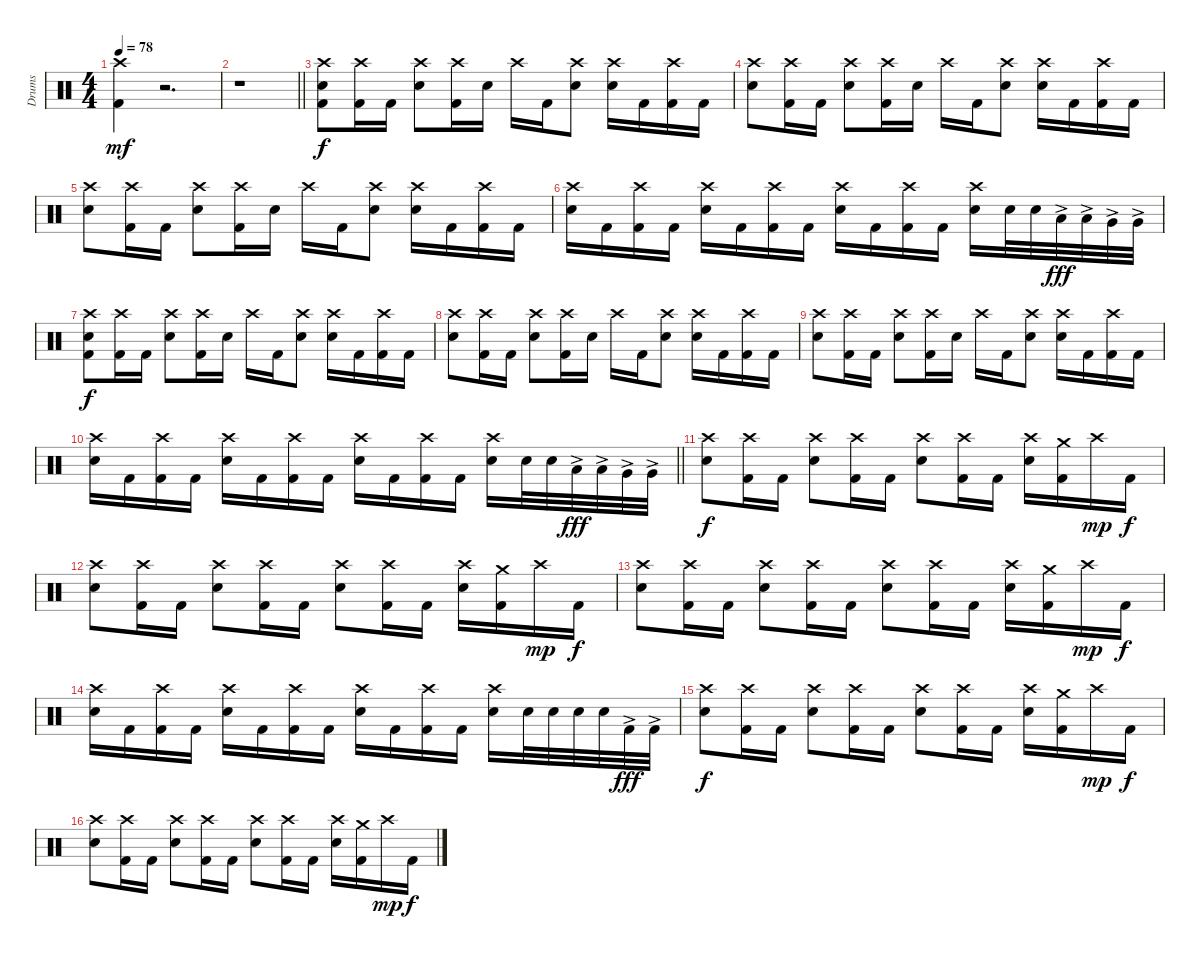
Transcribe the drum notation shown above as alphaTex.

\track ("Drums" "Drums") {instrument percussion}
\staff {score}
\articulation defaults
\ts (4 4)
\tempo 78
\clef neutral
\ks c
("Crash high (hit)" "Kick (hit) 2").4{dy mf} r.2{d} |
\barLineRight lightlight
r.1 |
("Crash high (hit)" "Snare (hit) 2" "Kick (hit) 2").8{dy f volume 16} ("Crash high (hit)" "Kick (hit) 2").16 "Kick (hit) 2".16 ("Crash high (hit)" "Snare (hit) 2").8 ("Crash high (hit)" "Kick (hit) 2").16 "Snare (hit) 2".16 "Crash high (hit)".16 "Kick (hit) 2".16 ("Crash high (hit)" "Snare (hit) 2").8 ("Crash high (hit)" "Snare (hit) 2").16 "Kick (hit) 2".16 ("Crash high (hit)" "Kick (hit) 2").16 "Kick (hit) 2".16 |
("Crash high (hit)" "Snare (hit) 2").8 ("Crash high (hit)" "Kick (hit) 2").16 "Kick (hit) 2".16 ("Crash high (hit)" "Snare (hit) 2").8 ("Crash high (hit)" "Kick (hit) 2").16 "Snare (hit) 2".16 "Crash high (hit)".16 "Kick (hit) 2".16 ("Crash high (hit)" "Snare (hit) 2").8 ("Crash high (hit)" "Snare (hit) 2").16 "Kick (hit) 2".16 ("Crash high (hit)" "Kick (hit) 2").16 "Kick (hit) 2".16 |
("Crash high (hit)" "Snare (hit) 2").8 ("Crash high (hit)" "Kick (hit) 2").16 "Kick (hit) 2".16 ("Crash high (hit)" "Snare (hit) 2").8 ("Crash high (hit)" "Kick (hit) 2").16 "Snare (hit) 2".16 "Crash high (hit)".16 "Kick (hit) 2".16 ("Crash high (hit)" "Snare (hit) 2").8 ("Crash high (hit)" "Snare (hit) 2").16 "Kick (hit) 2".16 ("Crash high (hit)" "Kick (hit) 2").16 "Kick (hit) 2".16 |
("Crash high (hit)" "Snare (hit) 2").16 "Kick (hit) 2".16 ("Crash high (hit)" "Kick (hit) 2").16 "Kick (hit) 2".16 ("Crash high (hit)" "Snare (hit) 2").16 "Kick (hit) 2".16 ("Crash high (hit)" "Kick (hit) 2").16 "Kick (hit) 2".16 ("Crash high (hit)" "Snare (hit) 2").16 "Kick (hit) 2".16 ("Crash high (hit)" "Kick (hit) 2").16 "Kick (hit) 2".16 ("Crash high (hit)" "Snare (hit) 2").16 "Snare (hit) 2".32 "Snare (hit) 2".32 "Low Tom (hit)"{ac}.32{dy fff} "Low Tom (hit)"{ac}.32 "Very Low Tom (hit)"{ac}.32 "Very Low Tom (hit)"{ac}.32 |
("Crash high (hit)" "Snare (hit) 2" "Kick (hit) 2").8{dy f} ("Crash high (hit)" "Kick (hit) 2").16 "Kick (hit) 2".16 ("Crash high (hit)" "Snare (hit) 2").8 ("Crash high (hit)" "Kick (hit) 2").16 "Snare (hit) 2".16 "Crash high (hit)".16 "Kick (hit) 2".16 ("Crash high (hit)" "Snare (hit) 2").8 ("Crash high (hit)" "Snare (hit) 2").16 "Kick (hit) 2".16 ("Crash high (hit)" "Kick (hit) 2").16 "Kick (hit) 2".16 |
("Crash high (hit)" "Snare (hit) 2").8 ("Crash high (hit)" "Kick (hit) 2").16 "Kick (hit) 2".16 ("Crash high (hit)" "Snare (hit) 2").8 ("Crash high (hit)" "Kick (hit) 2").16 "Snare (hit) 2".16 "Crash high (hit)".16 "Kick (hit) 2".16 ("Crash high (hit)" "Snare (hit) 2").8 ("Crash high (hit)" "Snare (hit) 2").16 "Kick (hit) 2".16 ("Crash high (hit)" "Kick (hit) 2").16 "Kick (hit) 2".16 |
("Crash high (hit)" "Snare (hit) 2").8 ("Crash high (hit)" "Kick (hit) 2").16 "Kick (hit) 2".16 ("Crash high (hit)" "Snare (hit) 2").8 ("Crash high (hit)" "Kick (hit) 2").16 "Snare (hit) 2".16 "Crash high (hit)".16 "Kick (hit) 2".16 ("Crash high (hit)" "Snare (hit) 2").8 ("Crash high (hit)" "Snare (hit) 2").16 "Kick (hit) 2".16 ("Crash high (hit)" "Kick (hit) 2").16 "Kick (hit) 2".16 |
\barLineRight lightlight
("Crash high (hit)" "Snare (hit) 2").16 "Kick (hit) 2".16 ("Crash high (hit)" "Kick (hit) 2").16 "Kick (hit) 2".16 ("Crash high (hit)" "Snare (hit) 2").16 "Kick (hit) 2".16 ("Crash high (hit)" "Kick (hit) 2").16 "Kick (hit) 2".16 ("Crash high (hit)" "Snare (hit) 2").16 "Kick (hit) 2".16 ("Crash high (hit)" "Kick (hit) 2").16 "Kick (hit) 2".16 ("Crash high (hit)" "Snare (hit) 2").16 "Snare (hit) 2".32 "Snare (hit) 2".32 "Low Tom (hit)"{ac}.32{dy fff} "Low Tom (hit)"{ac}.32 "Very Low Tom (hit)"{ac}.32 "Very Low Tom (hit)"{ac}.32 |
("Crash high (hit)" "Snare (hit) 2").8{dy f} ("Crash high (hit)" "Kick (hit) 2").16 "Kick (hit) 2".16 ("Crash high (hit)" "Snare (hit) 2").8 ("Crash high (hit)" "Kick (hit) 2").16 "Kick (hit) 2".16 ("Crash high (hit)" "Snare (hit) 2").8 ("Crash high (hit)" "Kick (hit) 2").16 "Kick (hit) 2".16 ("Crash high (hit)" "Snare (hit) 2").16 ("Crash medium (hit)" "Kick (hit) 2").16 "Crash high (hit)".16{dy mp} "Kick (hit) 2".16{dy f} |
("Crash high (hit)" "Snare (hit) 2").8 ("Crash high (hit)" "Kick (hit) 2").16 "Kick (hit) 2".16 ("Crash high (hit)" "Snare (hit) 2").8 ("Crash high (hit)" "Kick (hit) 2").16 "Kick (hit) 2".16 ("Crash high (hit)" "Snare (hit) 2").8 ("Crash high (hit)" "Kick (hit) 2").16 "Kick (hit) 2".16 ("Crash high (hit)" "Snare (hit) 2").16 ("Crash medium (hit)" "Kick (hit) 2").16 "Crash high (hit)".16{dy mp} "Kick (hit) 2".16{dy f} |
("Crash high (hit)" "Snare (hit) 2").8 ("Crash high (hit)" "Kick (hit) 2").16 "Kick (hit) 2".16 ("Crash high (hit)" "Snare (hit) 2").8 ("Crash high (hit)" "Kick (hit) 2").16 "Kick (hit) 2".16 ("Crash high (hit)" "Snare (hit) 2").8 ("Crash high (hit)" "Kick (hit) 2").16 "Kick (hit) 2".16 ("Crash high (hit)" "Snare (hit) 2").16 ("Crash medium (hit)" "Kick (hit) 2").16 "Crash high (hit)".16{dy mp} "Kick (hit) 2".16{dy f} |
("Crash high (hit)" "Snare (hit) 2").16 "Kick (hit) 2".16 ("Crash high (hit)" "Kick (hit) 2").16 "Kick (hit) 2".16 ("Crash high (hit)" "Snare (hit) 2").16 "Kick (hit) 2".16 ("Crash high (hit)" "Kick (hit) 2").16 "Kick (hit) 2".16 ("Crash high (hit)" "Snare (hit) 2").16 "Kick (hit) 2".16 ("Crash high (hit)" "Kick (hit) 2").16 "Kick (hit) 2".16 ("Crash high (hit)" "Snare (hit) 2").16 "Snare (hit) 2".32 "Snare (hit) 2".32 "Snare (hit) 2".32 "Snare (hit) 2".32 "Kick (hit) 2"{ac}.32{dy fff} "Kick (hit) 2"{ac}.32 |
("Crash high (hit)" "Snare (hit) 2").8{dy f} ("Crash high (hit)" "Kick (hit) 2").16 "Kick (hit) 2".16 ("Crash high (hit)" "Snare (hit) 2").8 ("Crash high (hit)" "Kick (hit) 2").16 "Kick (hit) 2".16 ("Crash high (hit)" "Snare (hit) 2").8 ("Crash high (hit)" "Kick (hit) 2").16 "Kick (hit) 2".16 ("Crash high (hit)" "Snare (hit) 2").16 ("Crash medium (hit)" "Kick (hit) 2").16 "Crash high (hit)".16{dy mp} "Kick (hit) 2".16{dy f} |
("Crash high (hit)" "Snare (hit) 2").8 ("Crash high (hit)" "Kick (hit) 2").16 "Kick (hit) 2".16 ("Crash high (hit)" "Snare (hit) 2").8 ("Crash high (hit)" "Kick (hit) 2").16 "Kick (hit) 2".16 ("Crash high (hit)" "Snare (hit) 2").8 ("Crash high (hit)" "Kick (hit) 2").16 "Kick (hit) 2".16 ("Crash high (hit)" "Snare (hit) 2").16 ("Crash medium (hit)" "Kick (hit) 2").16 "Crash high (hit)".16{dy mp} "Kick (hit) 2".16{dy f}
